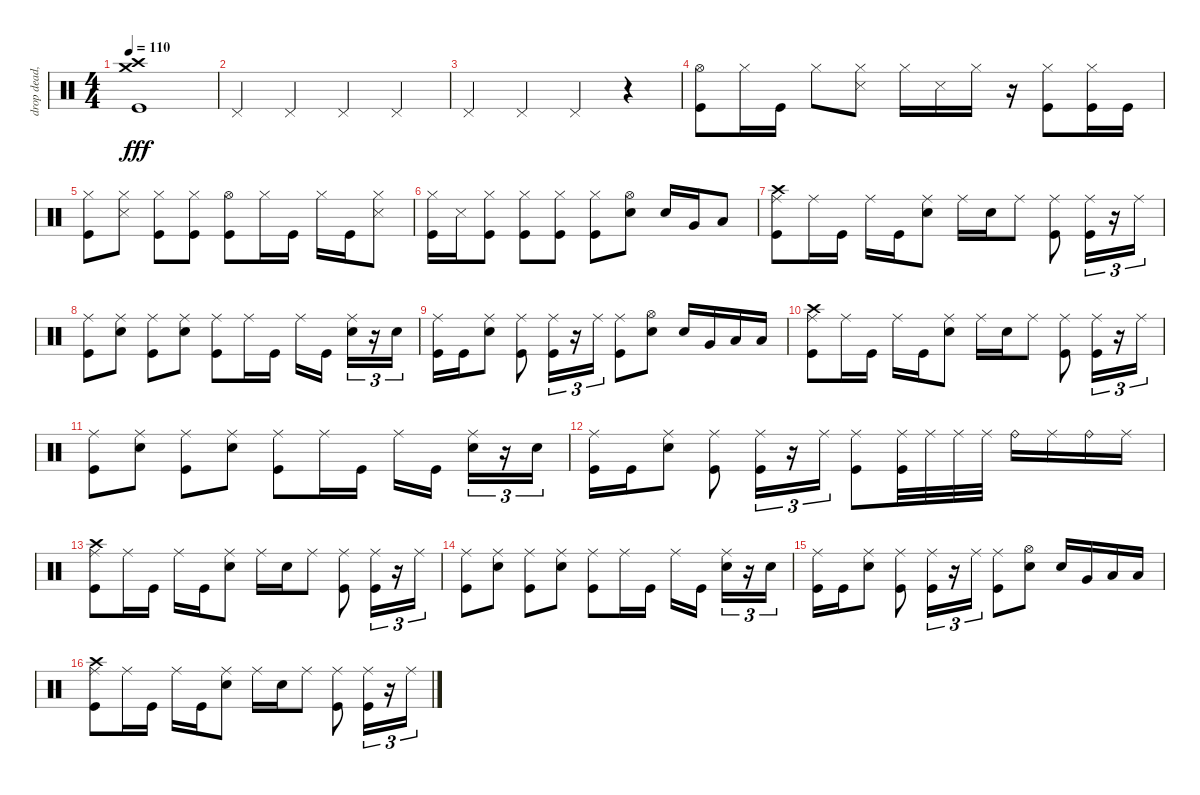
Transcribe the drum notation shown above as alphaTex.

\track ("drop dead, johnny" "drop dead,") {instrument percussion}
\staff {score}
\articulation defaults
\ts (4 4)
\tempo 110
\clef neutral
\ks c
("Crash medium (hit)" "Crash high (hit)" "Kick (hit)").1{dy fff} |
"Pedal Hi-Hat (hit)".4 "Pedal Hi-Hat (hit)".4 "Pedal Hi-Hat (hit)".4 "Pedal Hi-Hat (hit)".4 |
"Pedal Hi-Hat (hit)".4 "Pedal Hi-Hat (hit)".4 "Pedal Hi-Hat (hit)".4 r.4 |
("Hi-Hat (open)" "Kick (hit)").8 "Hi-Hat (closed)".16 "Kick (hit)".16 "Hi-Hat (closed)".8 ("Hi-Hat (closed)" "Snare (side stick) 3").8 "Hi-Hat (closed)".16 "Snare (side stick) 3".16 "Hi-Hat (closed)".16 r.16 ("Hi-Hat (closed)" "Kick (hit)").8 ("Hi-Hat (closed)" "Kick (hit)").16 "Kick (hit)".16 |
("Hi-Hat (closed)" "Kick (hit)").8 ("Hi-Hat (closed)" "Snare (side stick) 3").8 ("Hi-Hat (closed)" "Kick (hit)").8 ("Hi-Hat (closed)" "Kick (hit)").8 ("Hi-Hat (open)" "Kick (hit)").8 "Hi-Hat (closed)".16 "Kick (hit)".16 "Hi-Hat (closed)".16 "Kick (hit)".16 ("Hi-Hat (closed)" "Snare (side stick) 3").8 |
("Hi-Hat (closed)" "Kick (hit)").16 "Snare (side stick) 3".16 ("Hi-Hat (closed)" "Kick (hit)").8 ("Hi-Hat (closed)" "Kick (hit)").8 ("Hi-Hat (closed)" "Kick (hit)").8 ("Hi-Hat (closed)" "Kick (hit)").8 ("Hi-Hat (open)" "Electric Snare (hit)").8 "Electric Snare (hit)".16 "Very Low Tom (hit)".16 "Low Floor Tom (hit)".8 |
("Crash high (hit)" "Ride (middle)" "Kick (hit)").8 "Ride (middle)".16 "Kick (hit)".16 "Ride (middle)".16 "Kick (hit)".16 ("Ride (middle)" "Electric Snare (hit)").8 "Ride (middle)".16 "Electric Snare (hit)".16 "Ride (middle)".8 ("Ride (middle)" "Kick (hit)").8 ("Ride (middle)" "Kick (hit)").16{tu (3 2)} r.16{tu (3 2)} "Ride (middle)".16{tu (3 2)} |
("Ride (middle)" "Kick (hit)").8 ("Ride (middle)" "Electric Snare (hit)").8 ("Ride (middle)" "Kick (hit)").8 ("Ride (middle)" "Electric Snare (hit)").8 ("Ride (middle)" "Kick (hit)").8 "Ride (middle)".16 "Kick (hit)".16 "Ride (middle)".16 "Kick (hit)".16{beam splitsecondary} ("Ride (middle)" "Electric Snare (hit)").16{tu (3 2)} r.16{tu (3 2)} "Electric Snare (hit)".16{tu (3 2)} |
("Ride (middle)" "Kick (hit)").16 "Kick (hit)".16 ("Ride (middle)" "Electric Snare (hit)").8 ("Ride (middle)" "Kick (hit)").8 ("Ride (middle)" "Kick (hit)").16{tu (3 2)} r.16{tu (3 2)} "Ride (middle)".16{tu (3 2)} ("Ride (middle)" "Kick (hit)").8 ("Hi-Hat (open)" "Electric Snare (hit)").8 "Electric Snare (hit)".16 "Very Low Tom (hit)".16 "Low Floor Tom (hit)".16 "Low Floor Tom (hit)".16 |
("Crash high (hit)" "Ride (middle)" "Kick (hit)").8 "Ride (middle)".16 "Kick (hit)".16 "Ride (middle)".16 "Kick (hit)".16 ("Ride (middle)" "Electric Snare (hit)").8 "Ride (middle)".16 "Electric Snare (hit)".16 "Ride (middle)".8 ("Ride (middle)" "Kick (hit)").8 ("Ride (middle)" "Kick (hit)").16{tu (3 2)} r.16{tu (3 2)} "Ride (middle)".16{tu (3 2)} |
("Ride (middle)" "Kick (hit)").8 ("Ride (middle)" "Electric Snare (hit)").8 ("Ride (middle)" "Kick (hit)").8 ("Ride (middle)" "Electric Snare (hit)").8 ("Ride (middle)" "Kick (hit)").8 "Ride (middle)".16 "Kick (hit)".16 "Ride (middle)".16 "Kick (hit)".16{beam splitsecondary} ("Ride (middle)" "Electric Snare (hit)").16{tu (3 2)} r.16{tu (3 2)} "Electric Snare (hit)".16{tu (3 2)} |
("Ride (middle)" "Kick (hit)").16 "Kick (hit)".16 ("Ride (middle)" "Electric Snare (hit)").8 ("Ride (middle)" "Kick (hit)").8 ("Ride (middle)" "Kick (hit)").16{tu (3 2)} r.16{tu (3 2)} "Ride (middle)".16{tu (3 2)} ("Ride (middle)" "Kick (hit)").8 ("Ride (middle)" "Kick (hit)").32 "Ride (middle)".32 "Ride (middle)".32 "Ride (middle)".32 "Ride (bell)".16 "Ride (middle)".16 "Ride (bell)".16 "Ride (middle)".16 |
("Crash high (hit)" "Ride (middle)" "Kick (hit)").8 "Ride (middle)".16 "Kick (hit)".16 "Ride (middle)".16 "Kick (hit)".16 ("Ride (middle)" "Electric Snare (hit)").8 "Ride (middle)".16 "Electric Snare (hit)".16 "Ride (middle)".8 ("Ride (middle)" "Kick (hit)").8 ("Ride (middle)" "Kick (hit)").16{tu (3 2)} r.16{tu (3 2)} "Ride (middle)".16{tu (3 2)} |
("Ride (middle)" "Kick (hit)").8 ("Ride (middle)" "Electric Snare (hit)").8 ("Ride (middle)" "Kick (hit)").8 ("Ride (middle)" "Electric Snare (hit)").8 ("Ride (middle)" "Kick (hit)").8 "Ride (middle)".16 "Kick (hit)".16 "Ride (middle)".16 "Kick (hit)".16{beam splitsecondary} ("Ride (middle)" "Electric Snare (hit)").16{tu (3 2)} r.16{tu (3 2)} "Electric Snare (hit)".16{tu (3 2)} |
("Ride (middle)" "Kick (hit)").16 "Kick (hit)".16 ("Ride (middle)" "Electric Snare (hit)").8 ("Ride (middle)" "Kick (hit)").8 ("Ride (middle)" "Kick (hit)").16{tu (3 2)} r.16{tu (3 2)} "Ride (middle)".16{tu (3 2)} ("Ride (middle)" "Kick (hit)").8 ("Hi-Hat (open)" "Electric Snare (hit)").8 "Electric Snare (hit)".16 "Very Low Tom (hit)".16 "Low Floor Tom (hit)".16 "Low Floor Tom (hit)".16 |
("Crash high (hit)" "Ride (middle)" "Kick (hit)").8 "Ride (middle)".16 "Kick (hit)".16 "Ride (middle)".16 "Kick (hit)".16 ("Ride (middle)" "Electric Snare (hit)").8 "Ride (middle)".16 "Electric Snare (hit)".16 "Ride (middle)".8 ("Ride (middle)" "Kick (hit)").8 ("Ride (middle)" "Kick (hit)").16{tu (3 2)} r.16{tu (3 2)} "Ride (middle)".16{tu (3 2)}
